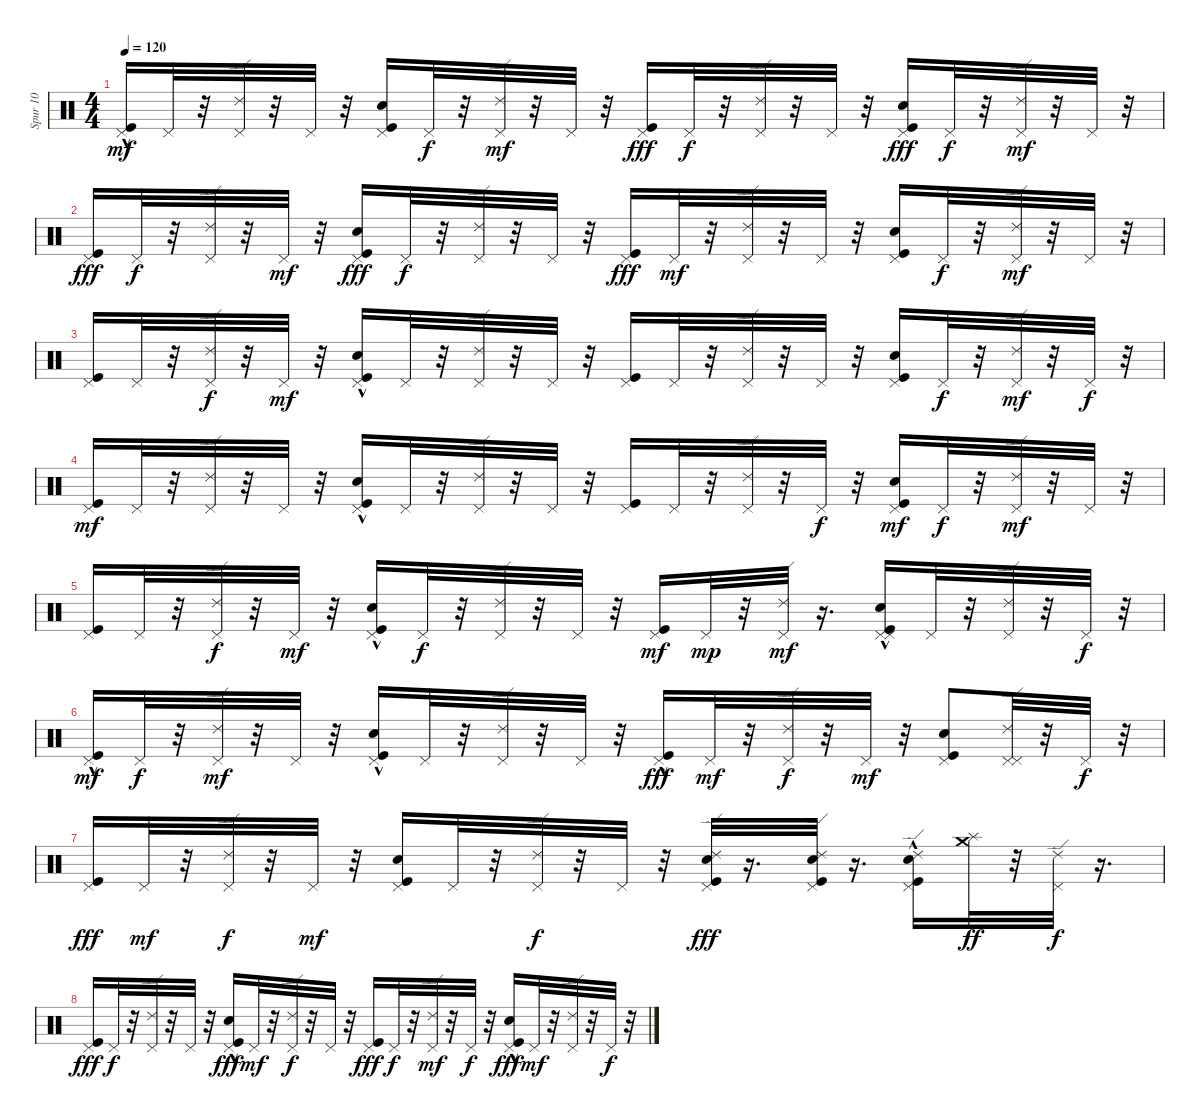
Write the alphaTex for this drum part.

\track ("Spur 10" "Spur 10") {instrument percussion}
\staff {score}
\articulation defaults
\ts (4 4)
\tempo 120
\clef neutral
\ks c
("Kick (hit)"{hac} "Pedal Hi-Hat (hit)").16{dy mf} "Pedal Hi-Hat (hit)".32 r.32 ("Ride (edge) 2" "Pedal Hi-Hat (hit)").32 r.32 "Pedal Hi-Hat (hit)".32 r.32 ("Snare (hit) 2" "Kick (hit)" "Pedal Hi-Hat (hit)").16 "Pedal Hi-Hat (hit)".32{dy f} r.32 ("Ride (edge) 2" "Pedal Hi-Hat (hit)").32{dy mf} r.32 "Pedal Hi-Hat (hit)".32 r.32 ("Kick (hit)" "Pedal Hi-Hat (hit)").16{dy fff} "Pedal Hi-Hat (hit)".32{dy f} r.32 ("Ride (edge) 2" "Pedal Hi-Hat (hit)").32 r.32 "Pedal Hi-Hat (hit)".32 r.32 ("Snare (hit) 2" "Kick (hit)" "Pedal Hi-Hat (hit)").16{dy fff} "Pedal Hi-Hat (hit)".32{dy f} r.32 ("Ride (edge) 2" "Pedal Hi-Hat (hit)").32{dy mf} r.32 "Pedal Hi-Hat (hit)".32 r.32 |
("Kick (hit)" "Pedal Hi-Hat (hit)").16{dy fff} "Pedal Hi-Hat (hit)".32{dy f} r.32 ("Ride (edge) 2" "Pedal Hi-Hat (hit)").32 r.32 "Pedal Hi-Hat (hit)".32{dy mf} r.32 ("Snare (hit) 2" "Kick (hit)" "Pedal Hi-Hat (hit)").16{dy fff} "Pedal Hi-Hat (hit)".32{dy f} r.32 ("Ride (edge) 2" "Pedal Hi-Hat (hit)").32 r.32 "Pedal Hi-Hat (hit)".32 r.32 ("Kick (hit)" "Pedal Hi-Hat (hit)").16{dy fff} "Pedal Hi-Hat (hit)".32{dy mf} r.32 ("Ride (edge) 2" "Pedal Hi-Hat (hit)").32 r.32 "Pedal Hi-Hat (hit)".32 r.32 ("Snare (hit) 2" "Kick (hit)" "Pedal Hi-Hat (hit)").16 "Pedal Hi-Hat (hit)".32{dy f} r.32 ("Ride (edge) 2" "Pedal Hi-Hat (hit)").32{dy mf} r.32 "Pedal Hi-Hat (hit)".32 r.32 |
("Kick (hit)" "Pedal Hi-Hat (hit)").16 "Pedal Hi-Hat (hit)".32 r.32 ("Ride (edge) 2" "Pedal Hi-Hat (hit)").32{dy f} r.32 "Pedal Hi-Hat (hit)".32{dy mf} r.32 ("Snare (hit) 2"{hac} "Kick (hit)" "Pedal Hi-Hat (hit)").16 "Pedal Hi-Hat (hit)".32 r.32 ("Ride (edge) 2" "Pedal Hi-Hat (hit)").32 r.32 "Pedal Hi-Hat (hit)".32 r.32 ("Kick (hit)" "Pedal Hi-Hat (hit)").16 "Pedal Hi-Hat (hit)".32 r.32 ("Ride (edge) 2" "Pedal Hi-Hat (hit)").32 r.32 "Pedal Hi-Hat (hit)".32 r.32 ("Snare (hit) 2" "Kick (hit)" "Pedal Hi-Hat (hit)").16 "Pedal Hi-Hat (hit)".32{dy f} r.32 ("Ride (edge) 2" "Pedal Hi-Hat (hit)").32{dy mf} r.32 "Pedal Hi-Hat (hit)".32{dy f} r.32 |
("Kick (hit)" "Pedal Hi-Hat (hit)").16{dy mf} "Pedal Hi-Hat (hit)".32 r.32 ("Ride (edge) 2" "Pedal Hi-Hat (hit)").32 r.32 "Pedal Hi-Hat (hit)".32 r.32 ("Snare (hit) 2"{hac} "Kick (hit)" "Pedal Hi-Hat (hit)").16 "Pedal Hi-Hat (hit)".32 r.32 ("Ride (edge) 2" "Pedal Hi-Hat (hit)").32 r.32 "Pedal Hi-Hat (hit)".32 r.32 ("Kick (hit)" "Pedal Hi-Hat (hit)").16 "Pedal Hi-Hat (hit)".32 r.32 ("Ride (edge) 2" "Pedal Hi-Hat (hit)").32 r.32 "Pedal Hi-Hat (hit)".32{dy f} r.32 ("Snare (hit) 2" "Kick (hit)" "Pedal Hi-Hat (hit)").16{dy mf} "Pedal Hi-Hat (hit)".32{dy f} r.32 ("Ride (edge) 2" "Pedal Hi-Hat (hit)").32{dy mf} r.32 "Pedal Hi-Hat (hit)".32 r.32 |
("Kick (hit)" "Pedal Hi-Hat (hit)").16 "Pedal Hi-Hat (hit)".32 r.32 ("Ride (edge) 2" "Pedal Hi-Hat (hit)").32{dy f} r.32 "Pedal Hi-Hat (hit)".32{dy mf} r.32 ("Snare (hit) 2"{hac} "Kick (hit)" "Pedal Hi-Hat (hit)").16 "Pedal Hi-Hat (hit)".32{dy f} r.32 ("Ride (edge) 2" "Pedal Hi-Hat (hit)").32 r.32 "Pedal Hi-Hat (hit)".32 r.32 ("Kick (hit)" "Pedal Hi-Hat (hit)").16{dy mf} "Pedal Hi-Hat (hit)".32{dy mp} r.32 ("Ride (edge) 2" "Pedal Hi-Hat (hit)").32{dy mf} r.16{d} ("Snare (hit) 2"{hac} "Kick (hit)" "Pedal Hi-Hat (hit)" "Pedal Hi-Hat (hit)").16 "Pedal Hi-Hat (hit)".32 r.32 ("Ride (edge) 2" "Pedal Hi-Hat (hit)").32 r.32 "Pedal Hi-Hat (hit)".32{dy f} r.32 |
("Kick (hit)"{hac} "Pedal Hi-Hat (hit)").16{dy mf} "Pedal Hi-Hat (hit)".32{dy f} r.32 ("Ride (edge) 2" "Pedal Hi-Hat (hit)").32{dy mf} r.32 "Pedal Hi-Hat (hit)".32 r.32 ("Snare (hit) 2"{hac} "Kick (hit)" "Pedal Hi-Hat (hit)").16 "Pedal Hi-Hat (hit)".32 r.32 ("Ride (edge) 2" "Pedal Hi-Hat (hit)").32 r.32 "Pedal Hi-Hat (hit)".32 r.32 ("Kick (hit)"{hac} "Pedal Hi-Hat (hit)").16{dy fff} "Pedal Hi-Hat (hit)".32{dy mf} r.32 ("Ride (edge) 2" "Pedal Hi-Hat (hit)").32{dy f} r.32 "Pedal Hi-Hat (hit)".32{dy mf} r.32 ("Snare (hit) 2" "Kick (hit)" "Pedal Hi-Hat (hit)").8 ("Ride (edge) 2" "Pedal Hi-Hat (hit)" "Pedal Hi-Hat (hit)").32 r.32 "Pedal Hi-Hat (hit)".32{dy f} r.32 |
("Kick (hit)" "Pedal Hi-Hat (hit)").16{dy fff} "Pedal Hi-Hat (hit)".32{dy mf} r.32 ("Ride (edge) 2" "Pedal Hi-Hat (hit)").32{dy f} r.32 "Pedal Hi-Hat (hit)".32{dy mf} r.32 ("Snare (hit) 2" "Kick (hit)" "Pedal Hi-Hat (hit)").16 "Pedal Hi-Hat (hit)".32 r.32 ("Ride (edge) 2" "Pedal Hi-Hat (hit)").32{dy f} r.32 "Pedal Hi-Hat (hit)".32 r.32 ("Snare (hit) 2" "Kick (hit)" "Ride (edge) 2" "Pedal Hi-Hat (hit)").32{dy fff} r.16{d} ("Snare (hit) 2" "Kick (hit)" "Ride (edge) 2" "Pedal Hi-Hat (hit)").32 r.16{d} ("Snare (hit) 2" "Kick (hit)"{hac} "Ride (edge) 2" "Pedal Hi-Hat (hit)").16 ("Crash medium (hit)" "Splash (hit)").32{dy ff} r.32 ("Ride (edge) 2" "Pedal Hi-Hat (hit)").32{dy f} r.16{d} |
("Kick (hit)" "Pedal Hi-Hat (hit)").16{dy fff} "Pedal Hi-Hat (hit)".32{dy f} r.32 ("Ride (edge) 2" "Pedal Hi-Hat (hit)").32 r.32 "Pedal Hi-Hat (hit)".32 r.32 ("Snare (hit) 2"{hac} "Kick (hit)" "Pedal Hi-Hat (hit)").16{dy fff} "Pedal Hi-Hat (hit)".32{dy mf} r.32 ("Ride (edge) 2" "Pedal Hi-Hat (hit)").32{dy f} r.32 "Pedal Hi-Hat (hit)".32 r.32 ("Kick (hit)" "Pedal Hi-Hat (hit)").16{dy fff} "Pedal Hi-Hat (hit)".32{dy f} r.32 ("Ride (edge) 2" "Pedal Hi-Hat (hit)").32{dy mf} r.32 "Pedal Hi-Hat (hit)".32{dy f} r.32 ("Snare (hit) 2"{hac} "Kick (hit)" "Pedal Hi-Hat (hit)").16{dy fff} "Pedal Hi-Hat (hit)".32{dy mf} r.32 ("Ride (edge) 2" "Pedal Hi-Hat (hit)").32 r.32 "Pedal Hi-Hat (hit)".32{dy f} r.32
